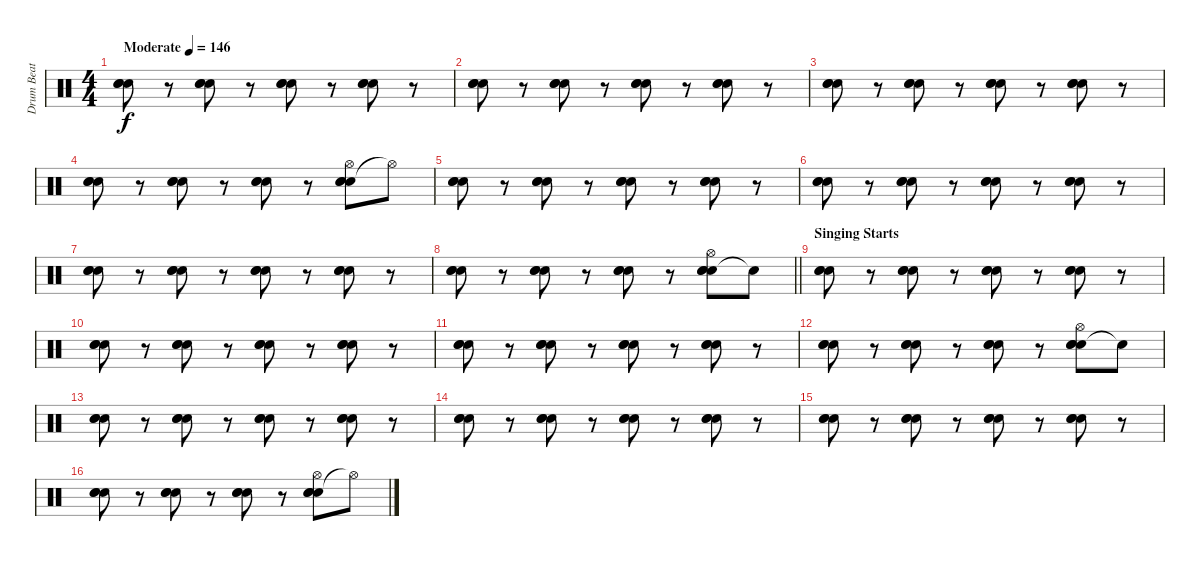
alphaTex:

\track ("Drum Beat" "Drum Beat") {instrument percussion}
\staff {score}
\articulation defaults
\ts (4 4)
\tempo (146 "Moderate")
\clef neutral
\ks c
("Hand Clap (hit)" "Hand Clap (hit)" "Hand Clap (hit)").8{dy f} r.8 ("Hand Clap (hit)" "Hand Clap (hit)" "Hand Clap (hit)").8 r.8 ("Hand Clap (hit)" "Hand Clap (hit)" "Hand Clap (hit)").8 r.8 ("Hand Clap (hit)" "Hand Clap (hit)" "Hand Clap (hit)").8 r.8 |
("Hand Clap (hit)" "Hand Clap (hit)" "Hand Clap (hit)").8 r.8 ("Hand Clap (hit)" "Hand Clap (hit)" "Hand Clap (hit)").8 r.8 ("Hand Clap (hit)" "Hand Clap (hit)" "Hand Clap (hit)").8 r.8 ("Hand Clap (hit)" "Hand Clap (hit)" "Hand Clap (hit)").8 r.8 |
("Hand Clap (hit)" "Hand Clap (hit)" "Hand Clap (hit)").8 r.8 ("Hand Clap (hit)" "Hand Clap (hit)" "Hand Clap (hit)").8 r.8 ("Hand Clap (hit)" "Hand Clap (hit)" "Hand Clap (hit)").8 r.8 ("Hand Clap (hit)" "Hand Clap (hit)" "Hand Clap (hit)").8 r.8 |
("Hand Clap (hit)" "Hand Clap (hit)" "Hand Clap (hit)").8 r.8 ("Hand Clap (hit)" "Hand Clap (hit)" "Hand Clap (hit)").8 r.8 ("Hand Clap (hit)" "Hand Clap (hit)" "Hand Clap (hit)").8 r.8 ("Hand Clap (hit)" "Hand Clap (hit)" "Hand Clap (hit)" "Hi-Hat (open)").8 "Hi-Hat (open)"{t}.8 |
("Hand Clap (hit)" "Hand Clap (hit)" "Hand Clap (hit)").8 r.8 ("Hand Clap (hit)" "Hand Clap (hit)" "Hand Clap (hit)").8 r.8 ("Hand Clap (hit)" "Hand Clap (hit)" "Hand Clap (hit)").8 r.8 ("Hand Clap (hit)" "Hand Clap (hit)" "Hand Clap (hit)").8 r.8 |
("Hand Clap (hit)" "Hand Clap (hit)" "Hand Clap (hit)").8 r.8 ("Hand Clap (hit)" "Hand Clap (hit)" "Hand Clap (hit)").8 r.8 ("Hand Clap (hit)" "Hand Clap (hit)" "Hand Clap (hit)").8 r.8 ("Hand Clap (hit)" "Hand Clap (hit)" "Hand Clap (hit)").8 r.8 |
("Hand Clap (hit)" "Hand Clap (hit)" "Hand Clap (hit)").8 r.8 ("Hand Clap (hit)" "Hand Clap (hit)" "Hand Clap (hit)").8 r.8 ("Hand Clap (hit)" "Hand Clap (hit)" "Hand Clap (hit)").8 r.8 ("Hand Clap (hit)" "Hand Clap (hit)" "Hand Clap (hit)").8 r.8 |
\barLineRight lightlight
("Hand Clap (hit)" "Hand Clap (hit)" "Hand Clap (hit)").8 r.8 ("Hand Clap (hit)" "Hand Clap (hit)" "Hand Clap (hit)").8 r.8 ("Hand Clap (hit)" "Hand Clap (hit)" "Hand Clap (hit)").8 r.8 ("Hand Clap (hit)" "Hand Clap (hit)" "Hand Clap (hit)" "Hi-Hat (open)").8 "Snare (hit)"{t}.8 |
\section ("" "Singing Starts")
("Hand Clap (hit)" "Hand Clap (hit)" "Hand Clap (hit)").8 r.8 ("Hand Clap (hit)" "Hand Clap (hit)" "Hand Clap (hit)").8 r.8 ("Hand Clap (hit)" "Hand Clap (hit)" "Hand Clap (hit)").8 r.8 ("Hand Clap (hit)" "Hand Clap (hit)" "Hand Clap (hit)").8 r.8 |
("Hand Clap (hit)" "Hand Clap (hit)" "Hand Clap (hit)").8 r.8 ("Hand Clap (hit)" "Hand Clap (hit)" "Hand Clap (hit)").8 r.8 ("Hand Clap (hit)" "Hand Clap (hit)" "Hand Clap (hit)").8 r.8 ("Hand Clap (hit)" "Hand Clap (hit)" "Hand Clap (hit)").8 r.8 |
("Hand Clap (hit)" "Hand Clap (hit)" "Hand Clap (hit)").8 r.8 ("Hand Clap (hit)" "Hand Clap (hit)" "Hand Clap (hit)").8 r.8 ("Hand Clap (hit)" "Hand Clap (hit)" "Hand Clap (hit)").8 r.8 ("Hand Clap (hit)" "Hand Clap (hit)" "Hand Clap (hit)").8 r.8 |
("Hand Clap (hit)" "Hand Clap (hit)" "Hand Clap (hit)").8 r.8 ("Hand Clap (hit)" "Hand Clap (hit)" "Hand Clap (hit)").8 r.8 ("Hand Clap (hit)" "Hand Clap (hit)" "Hand Clap (hit)").8 r.8 ("Hand Clap (hit)" "Hand Clap (hit)" "Hand Clap (hit)" "Hi-Hat (open)").8 "Snare (hit)"{t}.8 |
("Hand Clap (hit)" "Hand Clap (hit)" "Hand Clap (hit)").8 r.8 ("Hand Clap (hit)" "Hand Clap (hit)" "Hand Clap (hit)").8 r.8 ("Hand Clap (hit)" "Hand Clap (hit)" "Hand Clap (hit)").8 r.8 ("Hand Clap (hit)" "Hand Clap (hit)" "Hand Clap (hit)").8 r.8 |
("Hand Clap (hit)" "Hand Clap (hit)" "Hand Clap (hit)").8 r.8 ("Hand Clap (hit)" "Hand Clap (hit)" "Hand Clap (hit)").8 r.8 ("Hand Clap (hit)" "Hand Clap (hit)" "Hand Clap (hit)").8 r.8 ("Hand Clap (hit)" "Hand Clap (hit)" "Hand Clap (hit)").8 r.8 |
("Hand Clap (hit)" "Hand Clap (hit)" "Hand Clap (hit)").8 r.8 ("Hand Clap (hit)" "Hand Clap (hit)" "Hand Clap (hit)").8 r.8 ("Hand Clap (hit)" "Hand Clap (hit)" "Hand Clap (hit)").8 r.8 ("Hand Clap (hit)" "Hand Clap (hit)" "Hand Clap (hit)").8 r.8 |
("Hand Clap (hit)" "Hand Clap (hit)" "Hand Clap (hit)").8 r.8 ("Hand Clap (hit)" "Hand Clap (hit)" "Hand Clap (hit)").8 r.8 ("Hand Clap (hit)" "Hand Clap (hit)" "Hand Clap (hit)").8 r.8 ("Hand Clap (hit)" "Hand Clap (hit)" "Hand Clap (hit)" "Hi-Hat (open)").8 "Hi-Hat (open)"{t}.8
